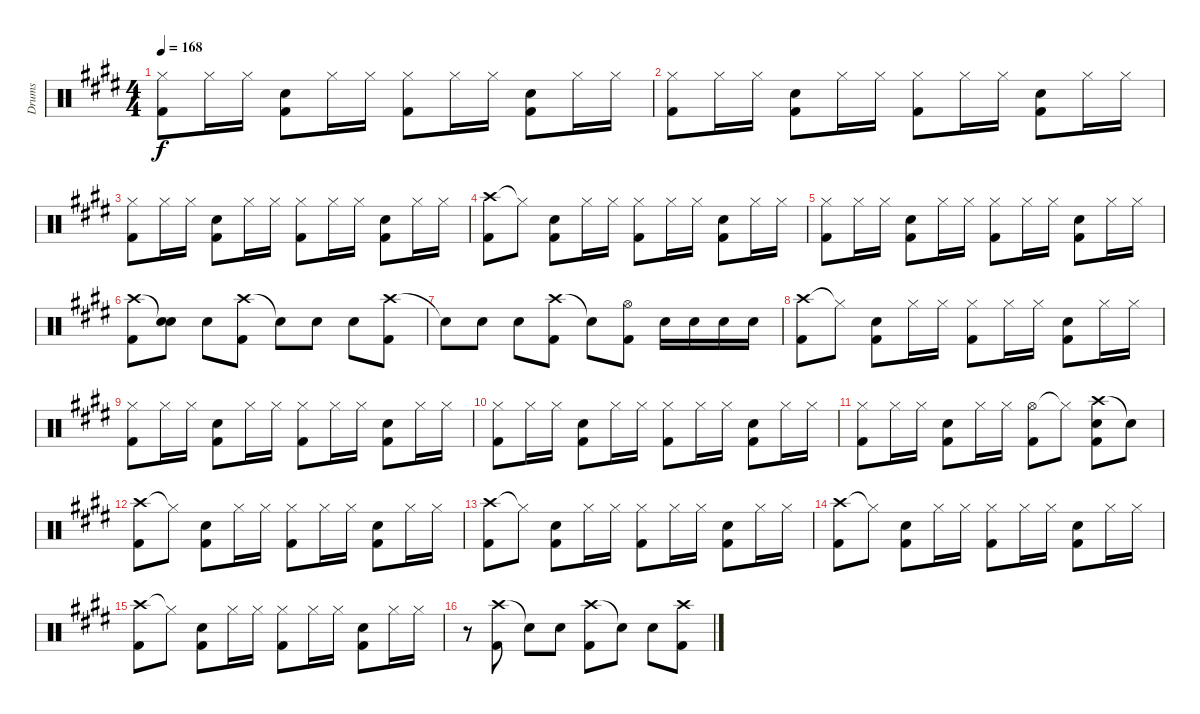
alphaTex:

\track ("Drums" "Drums") {instrument percussion}
\staff {score}
\articulation defaults
\ts (4 4)
\tempo 168
\clef neutral
\ks e
("Hi-Hat (closed)" "Kick (hit) 2").8{dy f} "Hi-Hat (closed)".16 "Hi-Hat (closed)".16 ("Snare (hit) 2" "Kick (hit) 2").8 "Hi-Hat (closed)".16 "Hi-Hat (closed)".16 ("Hi-Hat (closed)" "Kick (hit) 2").8 "Hi-Hat (closed)".16 "Hi-Hat (closed)".16 ("Snare (hit) 2" "Kick (hit) 2").8 "Hi-Hat (closed)".16 "Hi-Hat (closed)".16 |
("Hi-Hat (closed)" "Kick (hit) 2").8 "Hi-Hat (closed)".16 "Hi-Hat (closed)".16 ("Snare (hit) 2" "Kick (hit) 2").8 "Hi-Hat (closed)".16 "Hi-Hat (closed)".16 ("Hi-Hat (closed)" "Kick (hit) 2").8 "Hi-Hat (closed)".16 "Hi-Hat (closed)".16 ("Snare (hit) 2" "Kick (hit) 2").8 "Hi-Hat (closed)".16 "Hi-Hat (closed)".16 |
("Hi-Hat (closed)" "Kick (hit) 2").8 "Hi-Hat (closed)".16 "Hi-Hat (closed)".16 ("Snare (hit) 2" "Kick (hit) 2").8 "Hi-Hat (closed)".16 "Hi-Hat (closed)".16 ("Hi-Hat (closed)" "Kick (hit) 2").8 "Hi-Hat (closed)".16 "Hi-Hat (closed)".16 ("Snare (hit) 2" "Kick (hit) 2").8 "Hi-Hat (closed)".16 "Hi-Hat (closed)".16 |
("Crash high (hit)" "Kick (hit) 2").8 "Hi-Hat (closed)"{t}.8 ("Snare (hit) 2" "Kick (hit) 2").8 "Hi-Hat (closed)".16 "Hi-Hat (closed)".16 ("Hi-Hat (closed)" "Kick (hit) 2").8 "Hi-Hat (closed)".16 "Hi-Hat (closed)".16 ("Snare (hit) 2" "Kick (hit) 2").8 "Hi-Hat (closed)".16 "Hi-Hat (closed)".16 |
("Hi-Hat (closed)" "Kick (hit) 2").8 "Hi-Hat (closed)".16 "Hi-Hat (closed)".16 ("Snare (hit) 2" "Kick (hit) 2").8 "Hi-Hat (closed)".16 "Hi-Hat (closed)".16 ("Hi-Hat (closed)" "Kick (hit) 2").8 "Hi-Hat (closed)".16 "Hi-Hat (closed)".16 ("Snare (hit) 2" "Kick (hit) 2").8 "Hi-Hat (closed)".16 "Hi-Hat (closed)".16 |
("Crash high (hit)" "Kick (hit) 2").8 ("Electric Snare (hit)"{t} "Snare (hit) 2").8 "Snare (hit) 2".8 ("Crash high (hit)" "Kick (hit) 2").8 "Snare (hit)"{t}.8 "Snare (hit) 2".8 "Snare (hit) 2".8 ("Crash high (hit)" "Kick (hit) 2").8 |
"Snare (hit)"{t}.8 "Snare (hit) 2".8 "Snare (hit) 2".8 ("Crash high (hit)" "Kick (hit) 2").8 "Snare (hit)"{t}.8 ("Hi-Hat (open)" "Kick (hit) 2").8 "Snare (hit) 2".16 "Snare (hit) 2".16 "Snare (hit) 2".16 "Snare (hit) 2".16 |
("Crash high (hit)" "Kick (hit) 2").8 "Hi-Hat (closed)"{t}.8 ("Snare (hit) 2" "Kick (hit) 2").8 "Hi-Hat (closed)".16 "Hi-Hat (closed)".16 ("Hi-Hat (closed)" "Kick (hit) 2").8 "Hi-Hat (closed)".16 "Hi-Hat (closed)".16 ("Snare (hit) 2" "Kick (hit) 2").8 "Hi-Hat (closed)".16 "Hi-Hat (closed)".16 |
("Hi-Hat (closed)" "Kick (hit) 2").8 "Hi-Hat (closed)".16 "Hi-Hat (closed)".16 ("Snare (hit) 2" "Kick (hit) 2").8 "Hi-Hat (closed)".16 "Hi-Hat (closed)".16 ("Hi-Hat (closed)" "Kick (hit) 2").8 "Hi-Hat (closed)".16 "Hi-Hat (closed)".16 ("Snare (hit) 2" "Kick (hit) 2").8 "Hi-Hat (closed)".16 "Hi-Hat (closed)".16 |
("Hi-Hat (closed)" "Kick (hit) 2").8 "Hi-Hat (closed)".16 "Hi-Hat (closed)".16 ("Snare (hit) 2" "Kick (hit) 2").8 "Hi-Hat (closed)".16 "Hi-Hat (closed)".16 ("Hi-Hat (closed)" "Kick (hit) 2").8 "Hi-Hat (closed)".16 "Hi-Hat (closed)".16 ("Snare (hit) 2" "Kick (hit) 2").8 "Hi-Hat (closed)".16 "Hi-Hat (closed)".16 |
("Hi-Hat (closed)" "Kick (hit) 2").8 "Hi-Hat (closed)".16 "Hi-Hat (closed)".16 ("Snare (hit) 2" "Kick (hit) 2").8 "Hi-Hat (closed)".16 "Hi-Hat (closed)".16 ("Hi-Hat (open)" "Kick (hit) 2").8 "Hi-Hat (closed)"{t}.8 ("Crash high (hit)" "Snare (hit) 2" "Kick (hit) 2").8 "Snare (hit)"{t}.8 |
("Crash high (hit)" "Kick (hit) 2").8 "Hi-Hat (closed)"{t}.8 ("Snare (hit) 2" "Kick (hit) 2").8 "Hi-Hat (closed)".16 "Hi-Hat (closed)".16 ("Hi-Hat (closed)" "Kick (hit) 2").8 "Hi-Hat (closed)".16 "Hi-Hat (closed)".16 ("Snare (hit) 2" "Kick (hit) 2").8 "Hi-Hat (closed)".16 "Hi-Hat (closed)".16 |
("Crash high (hit)" "Kick (hit) 2").8 "Hi-Hat (closed)"{t}.8 ("Snare (hit) 2" "Kick (hit) 2").8 "Hi-Hat (closed)".16 "Hi-Hat (closed)".16 ("Hi-Hat (closed)" "Kick (hit) 2").8 "Hi-Hat (closed)".16 "Hi-Hat (closed)".16 ("Snare (hit) 2" "Kick (hit) 2").8 "Hi-Hat (closed)".16 "Hi-Hat (closed)".16 |
("Crash high (hit)" "Kick (hit) 2").8 "Hi-Hat (closed)"{t}.8 ("Snare (hit) 2" "Kick (hit) 2").8 "Hi-Hat (closed)".16 "Hi-Hat (closed)".16 ("Hi-Hat (closed)" "Kick (hit) 2").8 "Hi-Hat (closed)".16 "Hi-Hat (closed)".16 ("Snare (hit) 2" "Kick (hit) 2").8 "Hi-Hat (closed)".16 "Hi-Hat (closed)".16 |
("Crash high (hit)" "Kick (hit) 2").8 "Hi-Hat (closed)"{t}.8 ("Snare (hit) 2" "Kick (hit) 2").8 "Hi-Hat (closed)".16 "Hi-Hat (closed)".16 ("Hi-Hat (closed)" "Kick (hit) 2").8 "Hi-Hat (closed)".16 "Hi-Hat (closed)".16 ("Snare (hit) 2" "Kick (hit) 2").8 "Hi-Hat (closed)".16 "Hi-Hat (closed)".16 |
r.8 ("Crash high (hit)" "Kick (hit) 2").8 "Snare (hit)"{t}.8 "Snare (hit) 2".8 ("Crash high (hit)" "Kick (hit) 2").8 "Snare (hit)"{t}.8 "Snare (hit) 2".8 ("Crash high (hit)" "Kick (hit) 2").8
